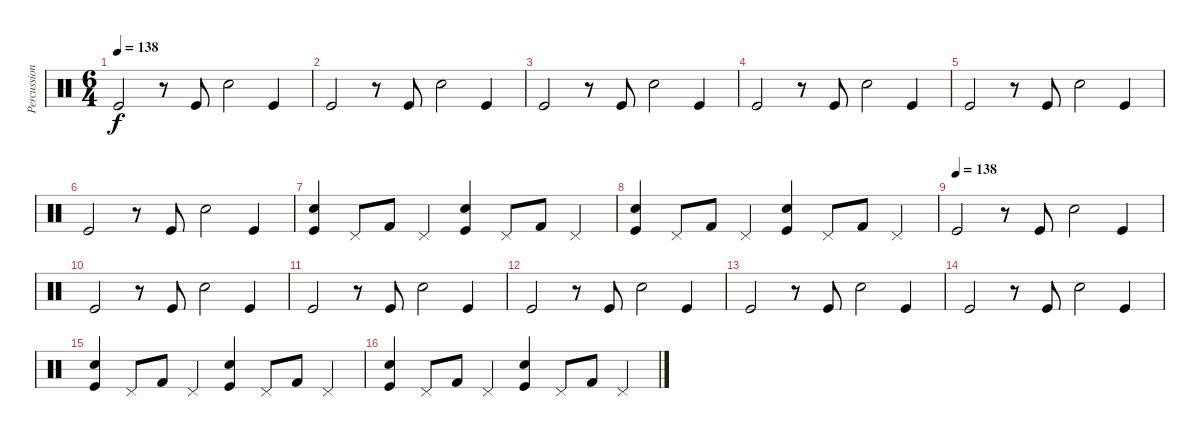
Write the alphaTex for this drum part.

\track ("Percussion" "Percussion") {instrument percussion}
\staff {score}
\articulation defaults
\ts (6 4)
\tempo 138
\clef neutral
\ks c "Kick (hit)".2{dy f}
r.8 "Kick (hit)".8 "Snare (hit) 2".2 "Kick (hit)".4 |
"Kick (hit)".2 r.8 "Kick (hit)".8 "Snare (hit) 2".2 "Kick (hit)".4 |
"Kick (hit)".2 r.8 "Kick (hit)".8 "Snare (hit) 2".2 "Kick (hit)".4 |
"Kick (hit)".2 r.8 "Kick (hit)".8 "Snare (hit) 2".2 "Kick (hit)".4 |
"Kick (hit)".2 r.8 "Kick (hit)".8 "Snare (hit) 2".2 "Kick (hit)".4 |
"Kick (hit)".2 r.8 "Kick (hit)".8 "Snare (hit) 2".2 "Kick (hit)".4 |
("Kick (hit)" "Snare (hit) 2").4 "Pedal Hi-Hat (hit)".8 "Kick (hit) 2".8 "Pedal Hi-Hat (hit)".4 ("Kick (hit)" "Snare (hit) 2").4 "Pedal Hi-Hat (hit)".8 "Kick (hit) 2".8 "Pedal Hi-Hat (hit)".4 |
("Kick (hit)" "Snare (hit) 2").4 "Pedal Hi-Hat (hit)".8 "Kick (hit) 2".8 "Pedal Hi-Hat (hit)".4 ("Kick (hit)" "Snare (hit) 2").4 "Pedal Hi-Hat (hit)".8 "Kick (hit) 2".8 "Pedal Hi-Hat (hit)".4 |
\tempo (138)
"Kick (hit)".2 r.8 "Kick (hit)".8 "Snare (hit) 2".2 "Kick (hit)".4 |
"Kick (hit)".2 r.8 "Kick (hit)".8 "Snare (hit) 2".2 "Kick (hit)".4 |
"Kick (hit)".2 r.8 "Kick (hit)".8 "Snare (hit) 2".2 "Kick (hit)".4 |
"Kick (hit)".2 r.8 "Kick (hit)".8 "Snare (hit) 2".2 "Kick (hit)".4 |
"Kick (hit)".2 r.8 "Kick (hit)".8 "Snare (hit) 2".2 "Kick (hit)".4 |
"Kick (hit)".2 r.8 "Kick (hit)".8 "Snare (hit) 2".2 "Kick (hit)".4 |
("Kick (hit)" "Snare (hit) 2").4 "Pedal Hi-Hat (hit)".8 "Kick (hit) 2".8 "Pedal Hi-Hat (hit)".4 ("Kick (hit)" "Snare (hit) 2").4 "Pedal Hi-Hat (hit)".8 "Kick (hit) 2".8 "Pedal Hi-Hat (hit)".4 |
("Kick (hit)" "Snare (hit) 2").4 "Pedal Hi-Hat (hit)".8 "Kick (hit) 2".8 "Pedal Hi-Hat (hit)".4 ("Kick (hit)" "Snare (hit) 2").4 "Pedal Hi-Hat (hit)".8 "Kick (hit) 2".8 "Pedal Hi-Hat (hit)".4
